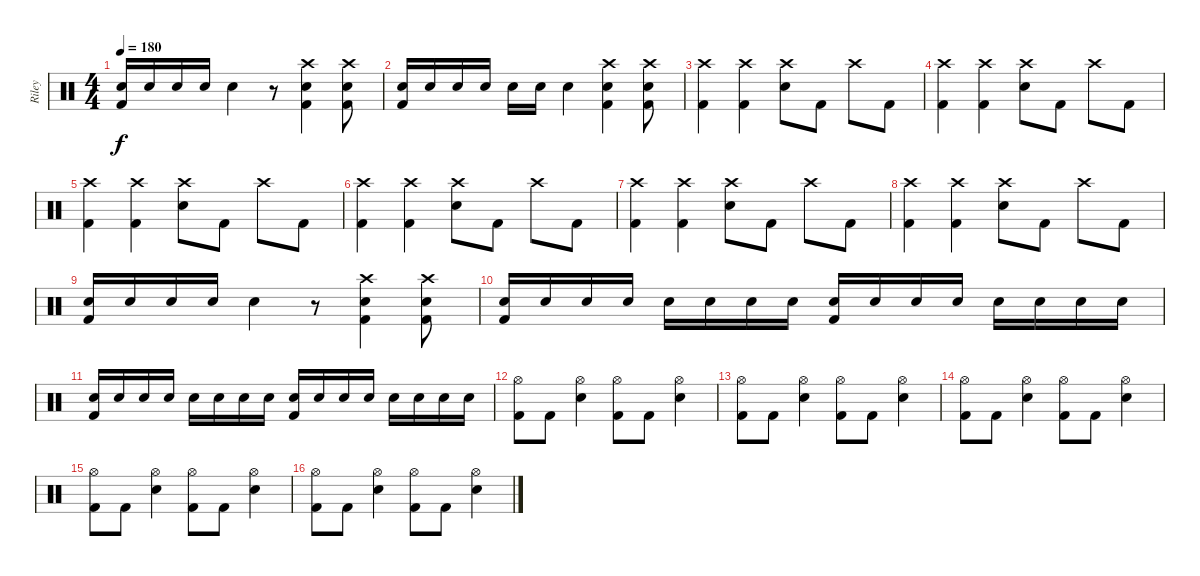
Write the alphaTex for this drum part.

\track ("Riley" "Riley") {instrument percussion}
\staff {score}
\articulation defaults
\ts (4 4)
\tempo 180
\clef neutral
\ks c
("Electric Snare (hit)" "Kick (hit) 2").16{dy f} "Electric Snare (hit)".16 "Electric Snare (hit)".16 "Electric Snare (hit)".16 "Electric Snare (hit)".4 r.8 ("Crash high (hit)" "Electric Snare (hit)" "Kick (hit) 2").4 ("Crash high (hit)" "Electric Snare (hit)" "Kick (hit) 2").8 |
("Electric Snare (hit)" "Kick (hit) 2").16 "Electric Snare (hit)".16 "Electric Snare (hit)".16 "Electric Snare (hit)".16 "Electric Snare (hit)".16 "Electric Snare (hit)".16 "Electric Snare (hit)".4 ("Crash high (hit)" "Electric Snare (hit)" "Kick (hit) 2").4 ("Crash high (hit)" "Electric Snare (hit)" "Kick (hit) 2").8 |
("Crash high (hit)" "Kick (hit) 2").4 ("Crash high (hit)" "Kick (hit) 2").4 ("Crash high (hit)" "Electric Snare (hit)").8 "Kick (hit) 2".8 "Crash high (hit)".8 "Kick (hit) 2".8 |
("Crash high (hit)" "Kick (hit) 2").4 ("Crash high (hit)" "Kick (hit) 2").4 ("Crash high (hit)" "Electric Snare (hit)").8 "Kick (hit) 2".8 "Crash high (hit)".8 "Kick (hit) 2".8 |
("Crash high (hit)" "Kick (hit) 2").4 ("Crash high (hit)" "Kick (hit) 2").4 ("Crash high (hit)" "Electric Snare (hit)").8 "Kick (hit) 2".8 "Crash high (hit)".8 "Kick (hit) 2".8 |
("Crash high (hit)" "Kick (hit) 2").4 ("Crash high (hit)" "Kick (hit) 2").4 ("Crash high (hit)" "Electric Snare (hit)").8 "Kick (hit) 2".8 "Crash high (hit)".8 "Kick (hit) 2".8 |
("Crash high (hit)" "Kick (hit) 2").4 ("Crash high (hit)" "Kick (hit) 2").4 ("Crash high (hit)" "Electric Snare (hit)").8 "Kick (hit) 2".8 "Crash high (hit)".8 "Kick (hit) 2".8 |
("Crash high (hit)" "Kick (hit) 2").4 ("Crash high (hit)" "Kick (hit) 2").4 ("Crash high (hit)" "Electric Snare (hit)").8 "Kick (hit) 2".8 "Crash high (hit)".8 "Kick (hit) 2".8 |
("Electric Snare (hit)" "Kick (hit) 2").16 "Electric Snare (hit)".16 "Electric Snare (hit)".16 "Electric Snare (hit)".16 "Electric Snare (hit)".4 r.8 ("Crash high (hit)" "Electric Snare (hit)" "Kick (hit) 2").4 ("Crash high (hit)" "Electric Snare (hit)" "Kick (hit) 2").8 |
("Electric Snare (hit)" "Kick (hit) 2").16 "Electric Snare (hit)".16 "Electric Snare (hit)".16 "Electric Snare (hit)".16 "Electric Snare (hit)".16 "Electric Snare (hit)".16 "Electric Snare (hit)".16 "Electric Snare (hit)".16 ("Electric Snare (hit)" "Kick (hit) 2").16 "Electric Snare (hit)".16 "Electric Snare (hit)".16 "Electric Snare (hit)".16 "Electric Snare (hit)".16 "Electric Snare (hit)".16 "Electric Snare (hit)".16 "Electric Snare (hit)".16 |
("Electric Snare (hit)" "Kick (hit) 2").16 "Electric Snare (hit)".16 "Electric Snare (hit)".16 "Electric Snare (hit)".16 "Electric Snare (hit)".16 "Electric Snare (hit)".16 "Electric Snare (hit)".16 "Electric Snare (hit)".16 ("Electric Snare (hit)" "Kick (hit) 2").16 "Electric Snare (hit)".16 "Electric Snare (hit)".16 "Electric Snare (hit)".16 "Electric Snare (hit)".16 "Electric Snare (hit)".16 "Electric Snare (hit)".16 "Electric Snare (hit)".16 |
("Hi-Hat (open)" "Kick (hit) 2").8 "Kick (hit) 2".8 ("Hi-Hat (open)" "Electric Snare (hit)").4 ("Hi-Hat (open)" "Kick (hit) 2").8 "Kick (hit) 2".8 ("Hi-Hat (open)" "Electric Snare (hit)").4 |
("Hi-Hat (open)" "Kick (hit) 2").8 "Kick (hit) 2".8 ("Hi-Hat (open)" "Electric Snare (hit)").4 ("Hi-Hat (open)" "Kick (hit) 2").8 "Kick (hit) 2".8 ("Hi-Hat (open)" "Electric Snare (hit)").4 |
("Hi-Hat (open)" "Kick (hit) 2").8 "Kick (hit) 2".8 ("Hi-Hat (open)" "Electric Snare (hit)").4 ("Hi-Hat (open)" "Kick (hit) 2").8 "Kick (hit) 2".8 ("Hi-Hat (open)" "Electric Snare (hit)").4 |
("Hi-Hat (open)" "Kick (hit) 2").8 "Kick (hit) 2".8 ("Hi-Hat (open)" "Electric Snare (hit)").4 ("Hi-Hat (open)" "Kick (hit) 2").8 "Kick (hit) 2".8 ("Hi-Hat (open)" "Electric Snare (hit)").4 |
("Hi-Hat (open)" "Kick (hit) 2").8 "Kick (hit) 2".8 ("Hi-Hat (open)" "Electric Snare (hit)").4 ("Hi-Hat (open)" "Kick (hit) 2").8 "Kick (hit) 2".8 ("Hi-Hat (open)" "Electric Snare (hit)").4
